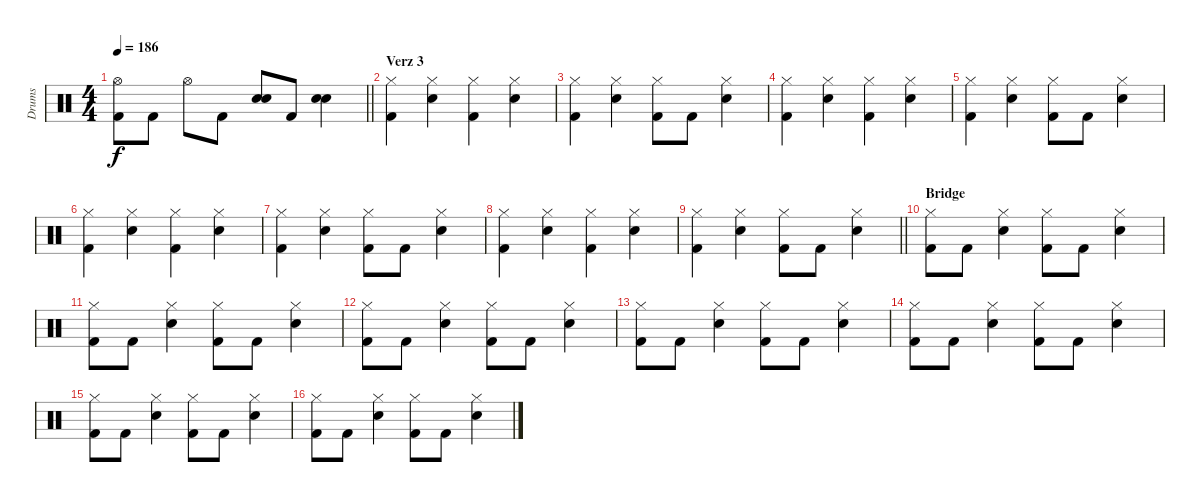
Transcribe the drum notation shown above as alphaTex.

\track ("Drums" "Drums") {instrument percussion}
\staff {score}
\articulation defaults
\ts (4 4)
\tempo 186
\clef neutral
\barLineRight lightlight
\ks c
("Hi-Hat (open)" "Kick (hit) 2").8{dy f} "Kick (hit) 2".8 "Hi-Hat (open)".8 "Kick (hit) 2".8 ("Snare (hit) 2" "Snare (hit) 2").8 "Kick (hit) 2".8 ("Snare (hit) 2" "Snare (hit) 2").4 |
\section ("" "Verz 3")
("Hi-Hat (closed)" "Kick (hit) 2").4 ("Hi-Hat (closed)" "Snare (hit) 2").4 ("Hi-Hat (closed)" "Kick (hit) 2").4 ("Hi-Hat (closed)" "Snare (hit) 2").4 |
("Hi-Hat (closed)" "Kick (hit) 2").4 ("Hi-Hat (closed)" "Snare (hit) 2").4 ("Hi-Hat (closed)" "Kick (hit) 2").8 "Kick (hit) 2".8 ("Hi-Hat (closed)" "Snare (hit) 2").4 |
("Hi-Hat (closed)" "Kick (hit) 2").4 ("Hi-Hat (closed)" "Snare (hit) 2").4 ("Hi-Hat (closed)" "Kick (hit) 2").4 ("Hi-Hat (closed)" "Snare (hit) 2").4 |
("Hi-Hat (closed)" "Kick (hit) 2").4 ("Hi-Hat (closed)" "Snare (hit) 2").4 ("Hi-Hat (closed)" "Kick (hit) 2").8 "Kick (hit) 2".8 ("Hi-Hat (closed)" "Snare (hit) 2").4 |
("Hi-Hat (closed)" "Kick (hit) 2").4 ("Hi-Hat (closed)" "Snare (hit) 2").4 ("Hi-Hat (closed)" "Kick (hit) 2").4 ("Hi-Hat (closed)" "Snare (hit) 2").4 |
("Hi-Hat (closed)" "Kick (hit) 2").4 ("Hi-Hat (closed)" "Snare (hit) 2").4 ("Hi-Hat (closed)" "Kick (hit) 2").8 "Kick (hit) 2".8 ("Hi-Hat (closed)" "Snare (hit) 2").4 |
("Hi-Hat (closed)" "Kick (hit) 2").4 ("Hi-Hat (closed)" "Snare (hit) 2").4 ("Hi-Hat (closed)" "Kick (hit) 2").4 ("Hi-Hat (closed)" "Snare (hit) 2").4 |
\barLineRight lightlight
("Hi-Hat (closed)" "Kick (hit) 2").4 ("Hi-Hat (closed)" "Snare (hit) 2").4 ("Hi-Hat (closed)" "Kick (hit) 2").8 "Kick (hit) 2".8 ("Hi-Hat (closed)" "Snare (hit) 2").4 |
\section ("" "Bridge")
("Hi-Hat (closed)" "Kick (hit) 2").8 "Kick (hit) 2".8 ("Hi-Hat (closed)" "Snare (hit) 2").4 ("Hi-Hat (closed)" "Kick (hit) 2").8 "Kick (hit) 2".8 ("Hi-Hat (closed)" "Snare (hit) 2").4 |
("Hi-Hat (closed)" "Kick (hit) 2").8 "Kick (hit) 2".8 ("Hi-Hat (closed)" "Snare (hit) 2").4 ("Hi-Hat (closed)" "Kick (hit) 2").8 "Kick (hit) 2".8 ("Hi-Hat (closed)" "Snare (hit) 2").4 |
("Hi-Hat (closed)" "Kick (hit) 2").8 "Kick (hit) 2".8 ("Hi-Hat (closed)" "Snare (hit) 2").4 ("Hi-Hat (closed)" "Kick (hit) 2").8 "Kick (hit) 2".8 ("Hi-Hat (closed)" "Snare (hit) 2").4 |
("Hi-Hat (closed)" "Kick (hit) 2").8 "Kick (hit) 2".8 ("Hi-Hat (closed)" "Snare (hit) 2").4 ("Hi-Hat (closed)" "Kick (hit) 2").8 "Kick (hit) 2".8 ("Hi-Hat (closed)" "Snare (hit) 2").4 |
("Hi-Hat (closed)" "Kick (hit) 2").8 "Kick (hit) 2".8 ("Hi-Hat (closed)" "Snare (hit) 2").4 ("Hi-Hat (closed)" "Kick (hit) 2").8 "Kick (hit) 2".8 ("Hi-Hat (closed)" "Snare (hit) 2").4 |
("Hi-Hat (closed)" "Kick (hit) 2").8 "Kick (hit) 2".8 ("Hi-Hat (closed)" "Snare (hit) 2").4 ("Hi-Hat (closed)" "Kick (hit) 2").8 "Kick (hit) 2".8 ("Hi-Hat (closed)" "Snare (hit) 2").4 |
("Hi-Hat (closed)" "Kick (hit) 2").8 "Kick (hit) 2".8 ("Hi-Hat (closed)" "Snare (hit) 2").4 ("Hi-Hat (closed)" "Kick (hit) 2").8 "Kick (hit) 2".8 ("Hi-Hat (closed)" "Snare (hit) 2").4
